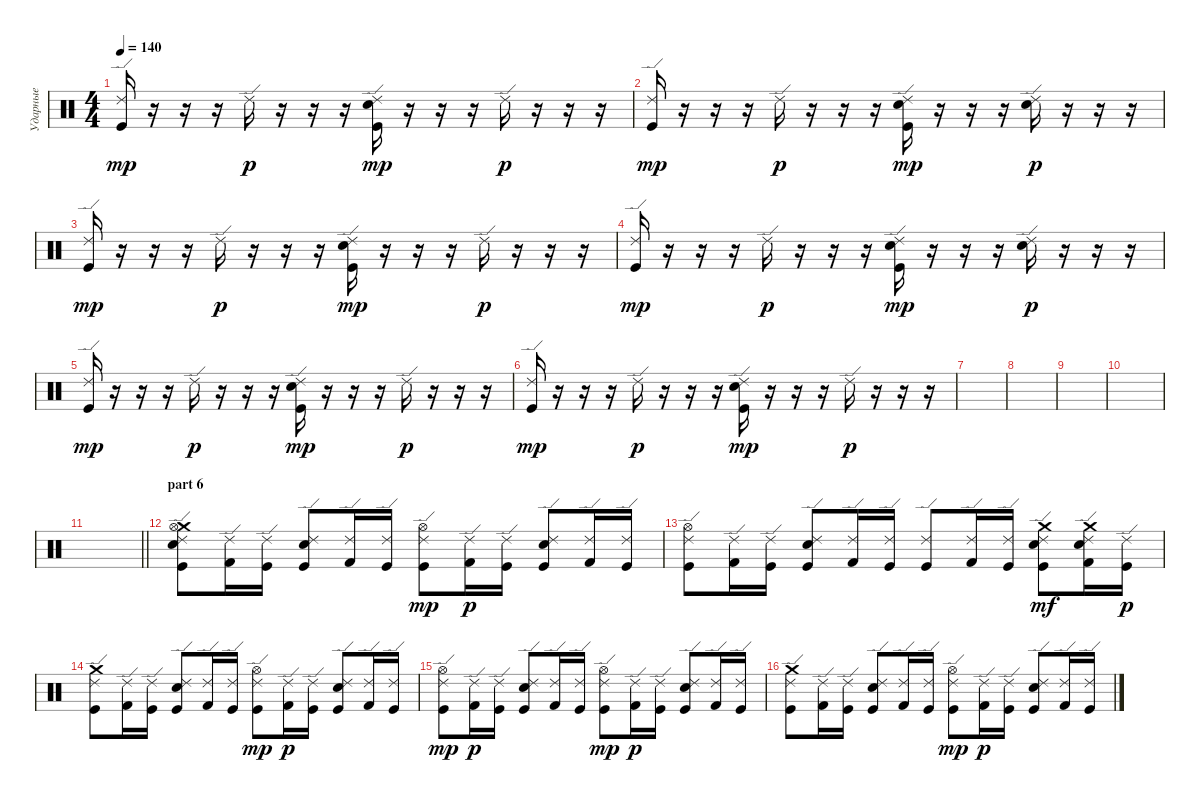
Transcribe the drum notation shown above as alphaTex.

\track ("Ударные" "Ударные") {instrument percussion}
\staff {score}
\articulation defaults
\ts (4 4)
\tempo 140
\clef neutral
\ks c
("Ride (edge) 2" "Kick (hit)").16{dy mp} r.16 r.16 r.16 "Ride (edge) 2".16{dy p} r.16 r.16 r.16 ("Ride (edge) 2" "Electric Snare (hit)" "Kick (hit)").16{dy mp} r.16 r.16 r.16 "Ride (edge) 2".16{dy p} r.16 r.16 r.16 |
("Ride (edge) 2" "Kick (hit)").16{dy mp} r.16 r.16 r.16 "Ride (edge) 2".16{dy p} r.16 r.16 r.16 ("Ride (edge) 2" "Electric Snare (hit)" "Kick (hit)").16{dy mp} r.16 r.16 r.16 ("Ride (edge) 2" "Electric Snare (hit)").16{dy p} r.16 r.16 r.16 |
("Ride (edge) 2" "Kick (hit)").16{dy mp} r.16 r.16 r.16 "Ride (edge) 2".16{dy p} r.16 r.16 r.16 ("Ride (edge) 2" "Electric Snare (hit)" "Kick (hit)").16{dy mp} r.16 r.16 r.16 "Ride (edge) 2".16{dy p} r.16 r.16 r.16 |
("Ride (edge) 2" "Kick (hit)").16{dy mp} r.16 r.16 r.16 "Ride (edge) 2".16{dy p} r.16 r.16 r.16 ("Ride (edge) 2" "Electric Snare (hit)" "Kick (hit)").16{dy mp} r.16 r.16 r.16 ("Ride (edge) 2" "Electric Snare (hit)").16{dy p} r.16 r.16 r.16 |
("Ride (edge) 2" "Kick (hit)").16{dy mp} r.16 r.16 r.16 "Ride (edge) 2".16{dy p} r.16 r.16 r.16 ("Ride (edge) 2" "Electric Snare (hit)" "Kick (hit)").16{dy mp} r.16 r.16 r.16 "Ride (edge) 2".16{dy p} r.16 r.16 r.16 |
("Ride (edge) 2" "Kick (hit)").16{dy mp} r.16 r.16 r.16 "Ride (edge) 2".16{dy p} r.16 r.16 r.16 ("Ride (edge) 2" "Electric Snare (hit)" "Kick (hit)").16{dy mp} r.16 r.16 r.16 "Ride (edge) 2".16{dy p} r.16 r.16 r.16 |
|
|
|
|
\barLineRight lightlight
|
\section ("" "part 6")
("Ride (edge) 2" "Crash medium (hit)" "Electric Snare (hit)" "Hi-Hat (open)" "Kick (hit)").8 ("Ride (edge) 2" "Kick (hit) 2").16 ("Ride (edge) 2" "Kick (hit)").16 ("Ride (edge) 2" "Electric Snare (hit)" "Kick (hit)").8 ("Ride (edge) 2" "Kick (hit) 2").16 ("Ride (edge) 2" "Kick (hit)").16 ("Ride (edge) 2" "Hi-Hat (open)" "Kick (hit)").8{dy mp} ("Ride (edge) 2" "Kick (hit) 2").16{dy p} ("Ride (edge) 2" "Kick (hit)").16 ("Ride (edge) 2" "Electric Snare (hit)" "Kick (hit)").8 ("Ride (edge) 2" "Kick (hit) 2").16 ("Ride (edge) 2" "Kick (hit)").16 |
("Ride (edge) 2" "Hi-Hat (open)" "Kick (hit)").8 ("Ride (edge) 2" "Kick (hit) 2").16 ("Ride (edge) 2" "Kick (hit)").16 ("Ride (edge) 2" "Electric Snare (hit)" "Kick (hit)").8 ("Ride (edge) 2" "Kick (hit) 2").16 ("Ride (edge) 2" "Kick (hit)").16 ("Ride (edge) 2" "Kick (hit)").8 ("Ride (edge) 2" "Kick (hit) 2").16 ("Ride (edge) 2" "Kick (hit)").16 ("Ride (edge) 2" "Crash medium (hit)" "Electric Snare (hit)" "Kick (hit)").8{dy mf} ("Ride (edge) 2" "Crash medium (hit)" "Electric Snare (hit)" "Kick (hit) 2").16 ("Ride (edge) 2" "Kick (hit)").16{dy p} |
("Ride (edge) 2" "Crash medium (hit)" "Kick (hit)").8 ("Ride (edge) 2" "Kick (hit) 2").16 ("Ride (edge) 2" "Kick (hit)").16 ("Ride (edge) 2" "Electric Snare (hit)" "Kick (hit)").8 ("Ride (edge) 2" "Kick (hit) 2").16 ("Ride (edge) 2" "Kick (hit)").16 ("Ride (edge) 2" "Hi-Hat (open)" "Kick (hit)").8{dy mp} ("Ride (edge) 2" "Kick (hit) 2").16{dy p} ("Ride (edge) 2" "Kick (hit)").16 ("Ride (edge) 2" "Electric Snare (hit)" "Kick (hit)").8 ("Ride (edge) 2" "Kick (hit) 2").16 ("Ride (edge) 2" "Kick (hit)").16 |
("Ride (edge) 2" "Hi-Hat (open)" "Kick (hit)").8{dy mp} ("Ride (edge) 2" "Kick (hit) 2").16{dy p} ("Ride (edge) 2" "Kick (hit)").16 ("Ride (edge) 2" "Electric Snare (hit)" "Kick (hit)").8 ("Ride (edge) 2" "Kick (hit) 2").16 ("Ride (edge) 2" "Kick (hit)").16 ("Ride (edge) 2" "Hi-Hat (open)" "Kick (hit)").8{dy mp} ("Ride (edge) 2" "Kick (hit) 2").16{dy p} ("Ride (edge) 2" "Kick (hit)").16 ("Ride (edge) 2" "Electric Snare (hit)" "Kick (hit)").8 ("Ride (edge) 2" "Kick (hit) 2").16 ("Ride (edge) 2" "Kick (hit)").16 |
("Ride (edge) 2" "Crash medium (hit)" "Kick (hit)").8 ("Ride (edge) 2" "Kick (hit) 2").16 ("Ride (edge) 2" "Kick (hit)").16 ("Ride (edge) 2" "Electric Snare (hit)" "Kick (hit)").8 ("Ride (edge) 2" "Kick (hit) 2").16 ("Ride (edge) 2" "Kick (hit)").16 ("Ride (edge) 2" "Hi-Hat (open)" "Kick (hit)").8{dy mp} ("Ride (edge) 2" "Kick (hit) 2").16{dy p} ("Ride (edge) 2" "Kick (hit)").16 ("Ride (edge) 2" "Electric Snare (hit)" "Kick (hit)").8 ("Ride (edge) 2" "Kick (hit) 2").16 ("Ride (edge) 2" "Kick (hit)").16
